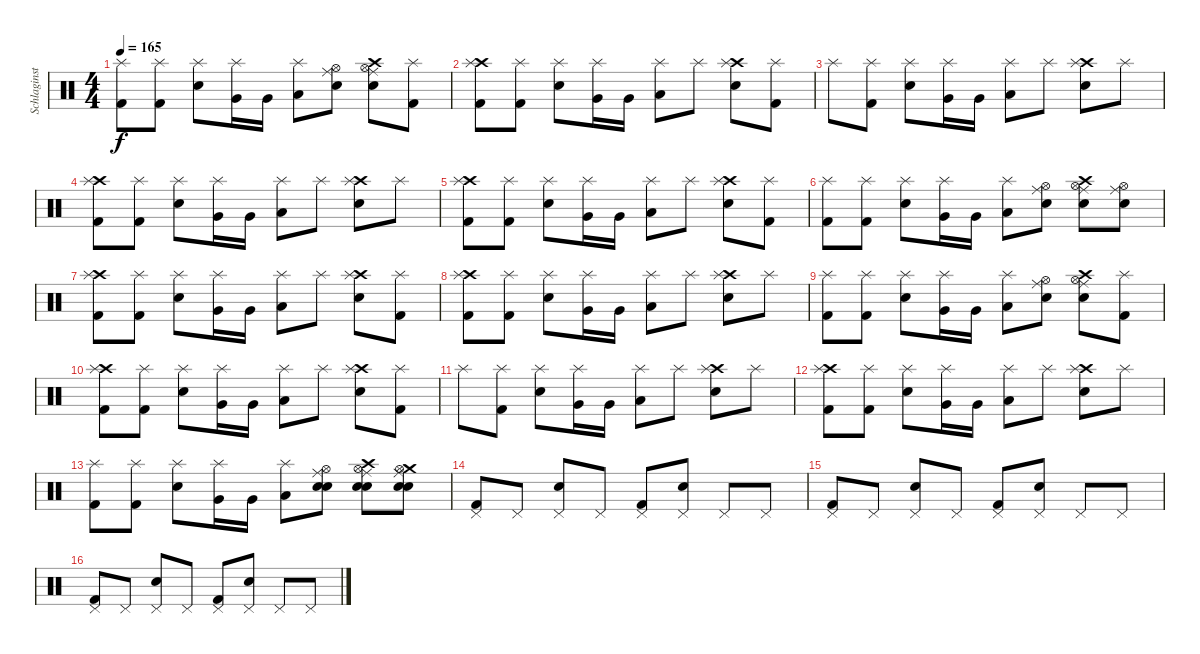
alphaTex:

\track ("Schlaginstrumente - Auswahl" "Schlaginst") {instrument percussion}
\staff {score}
\articulation defaults
\ts (4 4)
\tempo 165
\clef neutral
\ks c
("Splash (hit)" "Kick (hit) 2").8{dy f} ("Splash (hit)" "Kick (hit) 2").8 ("Splash (hit)" "Electric Snare (hit)").8 ("Very Low Tom (hit)" "Splash (hit)").16 "Very Low Tom (hit)".16 ("Low Floor Tom (hit)" "Splash (hit)").8 ("Ride (middle)" "Hi-Hat (open)" "Electric Snare (hit)").8 ("Crash high (hit)" "Ride (middle)" "Hi-Hat (open)" "Electric Snare (hit)").8 ("Splash (hit)" "Kick (hit) 2").8 |
("Crash high (hit)" "Splash (hit)" "Kick (hit) 2").8 ("Splash (hit)" "Kick (hit) 2").8 ("Splash (hit)" "Electric Snare (hit)").8 ("Very Low Tom (hit)" "Splash (hit)").16 "Very Low Tom (hit)".16 ("Low Floor Tom (hit)" "Splash (hit)").8 "Splash (hit)".8 ("Crash high (hit)" "Splash (hit)" "Electric Snare (hit)").8 ("Splash (hit)" "Kick (hit) 2").8 |
"Splash (hit)".8 ("Splash (hit)" "Kick (hit) 2").8 ("Splash (hit)" "Electric Snare (hit)").8 ("Very Low Tom (hit)" "Splash (hit)").16 "Very Low Tom (hit)".16 ("Low Floor Tom (hit)" "Splash (hit)").8 "Splash (hit)".8 ("Crash high (hit)" "Splash (hit)" "Electric Snare (hit)").8 "Splash (hit)".8 |
("Crash high (hit)" "Splash (hit)" "Kick (hit) 2").8 ("Splash (hit)" "Kick (hit) 2").8 ("Splash (hit)" "Electric Snare (hit)").8 ("Very Low Tom (hit)" "Splash (hit)").16 "Very Low Tom (hit)".16 ("Low Floor Tom (hit)" "Splash (hit)").8 "Splash (hit)".8 ("Crash high (hit)" "Splash (hit)" "Electric Snare (hit)").8 "Splash (hit)".8 |
("Crash high (hit)" "Splash (hit)" "Kick (hit) 2").8 ("Splash (hit)" "Kick (hit) 2").8 ("Splash (hit)" "Electric Snare (hit)").8 ("Very Low Tom (hit)" "Splash (hit)").16 "Very Low Tom (hit)".16 ("Low Floor Tom (hit)" "Splash (hit)").8 "Splash (hit)".8 ("Crash high (hit)" "Splash (hit)" "Electric Snare (hit)").8 ("Splash (hit)" "Kick (hit) 2").8 |
("Splash (hit)" "Kick (hit) 2").8 ("Splash (hit)" "Kick (hit) 2").8 ("Splash (hit)" "Electric Snare (hit)").8 ("Very Low Tom (hit)" "Splash (hit)").16 "Very Low Tom (hit)".16 ("Low Floor Tom (hit)" "Splash (hit)").8 ("Ride (middle)" "Hi-Hat (open)" "Electric Snare (hit)").8 ("Crash high (hit)" "Ride (middle)" "Hi-Hat (open)" "Electric Snare (hit)").8 ("Ride (middle)" "Hi-Hat (open)" "Electric Snare (hit)").8 |
("Crash high (hit)" "Splash (hit)" "Kick (hit) 2").8 ("Splash (hit)" "Kick (hit) 2").8 ("Splash (hit)" "Electric Snare (hit)").8 ("Very Low Tom (hit)" "Splash (hit)").16 "Very Low Tom (hit)".16 ("Low Floor Tom (hit)" "Splash (hit)").8 "Splash (hit)".8 ("Crash high (hit)" "Splash (hit)" "Electric Snare (hit)").8 ("Splash (hit)" "Kick (hit) 2").8 |
("Crash high (hit)" "Splash (hit)" "Kick (hit) 2").8 ("Splash (hit)" "Kick (hit) 2").8 ("Splash (hit)" "Electric Snare (hit)").8 ("Very Low Tom (hit)" "Splash (hit)").16 "Very Low Tom (hit)".16 ("Low Floor Tom (hit)" "Splash (hit)").8 "Splash (hit)".8 ("Crash high (hit)" "Splash (hit)" "Electric Snare (hit)").8 "Splash (hit)".8 |
("Splash (hit)" "Kick (hit) 2").8 ("Splash (hit)" "Kick (hit) 2").8 ("Splash (hit)" "Electric Snare (hit)").8 ("Very Low Tom (hit)" "Splash (hit)").16 "Very Low Tom (hit)".16 ("Low Floor Tom (hit)" "Splash (hit)").8 ("Ride (middle)" "Hi-Hat (open)" "Electric Snare (hit)").8 ("Crash high (hit)" "Ride (middle)" "Hi-Hat (open)" "Electric Snare (hit)").8 ("Splash (hit)" "Kick (hit) 2").8 |
("Crash high (hit)" "Splash (hit)" "Kick (hit) 2").8 ("Splash (hit)" "Kick (hit) 2").8 ("Splash (hit)" "Electric Snare (hit)").8 ("Very Low Tom (hit)" "Splash (hit)").16 "Very Low Tom (hit)".16 ("Low Floor Tom (hit)" "Splash (hit)").8 "Splash (hit)".8 ("Crash high (hit)" "Splash (hit)" "Electric Snare (hit)").8 ("Splash (hit)" "Kick (hit) 2").8 |
"Splash (hit)".8 ("Splash (hit)" "Kick (hit) 2").8 ("Splash (hit)" "Electric Snare (hit)").8 ("Very Low Tom (hit)" "Splash (hit)").16 "Very Low Tom (hit)".16 ("Low Floor Tom (hit)" "Splash (hit)").8 "Splash (hit)".8 ("Crash high (hit)" "Splash (hit)" "Electric Snare (hit)").8 "Splash (hit)".8 |
("Crash high (hit)" "Splash (hit)" "Kick (hit) 2").8 ("Splash (hit)" "Kick (hit) 2").8 ("Splash (hit)" "Electric Snare (hit)").8 ("Very Low Tom (hit)" "Splash (hit)").16 "Very Low Tom (hit)".16 ("Low Floor Tom (hit)" "Splash (hit)").8 "Splash (hit)".8 ("Crash high (hit)" "Splash (hit)" "Electric Snare (hit)").8 "Splash (hit)".8 |
("Splash (hit)" "Kick (hit) 2").8 ("Splash (hit)" "Kick (hit) 2").8 ("Splash (hit)" "Electric Snare (hit)").8 ("Very Low Tom (hit)" "Splash (hit)").16 "Very Low Tom (hit)".16 ("Low Floor Tom (hit)" "Splash (hit)").8 ("Ride (middle)" "Hand Clap (hit)" "Hi-Hat (open)" "Electric Snare (hit)").8 ("Crash high (hit)" "Ride (middle)" "Hand Clap (hit)" "Hi-Hat (open)" "Electric Snare (hit)").8 ("Crash medium (hit)" "Ride (middle)" "Hand Clap (hit)" "Hi-Hat (open)" "Electric Snare (hit)").8 |
("Pedal Hi-Hat (hit)" "Kick (hit) 2").8 "Pedal Hi-Hat (hit)".8 ("Pedal Hi-Hat (hit)" "Electric Snare (hit)").8 "Pedal Hi-Hat (hit)".8 ("Pedal Hi-Hat (hit)" "Kick (hit) 2").8 ("Pedal Hi-Hat (hit)" "Electric Snare (hit)").8 "Pedal Hi-Hat (hit)".8 "Pedal Hi-Hat (hit)".8 |
("Pedal Hi-Hat (hit)" "Kick (hit) 2").8 "Pedal Hi-Hat (hit)".8 ("Pedal Hi-Hat (hit)" "Electric Snare (hit)").8 "Pedal Hi-Hat (hit)".8 ("Pedal Hi-Hat (hit)" "Kick (hit) 2").8 ("Pedal Hi-Hat (hit)" "Electric Snare (hit)").8 "Pedal Hi-Hat (hit)".8 "Pedal Hi-Hat (hit)".8 |
("Pedal Hi-Hat (hit)" "Kick (hit) 2").8 "Pedal Hi-Hat (hit)".8 ("Pedal Hi-Hat (hit)" "Electric Snare (hit)").8 "Pedal Hi-Hat (hit)".8 ("Pedal Hi-Hat (hit)" "Kick (hit) 2").8 ("Pedal Hi-Hat (hit)" "Electric Snare (hit)").8 "Pedal Hi-Hat (hit)".8 "Pedal Hi-Hat (hit)".8
